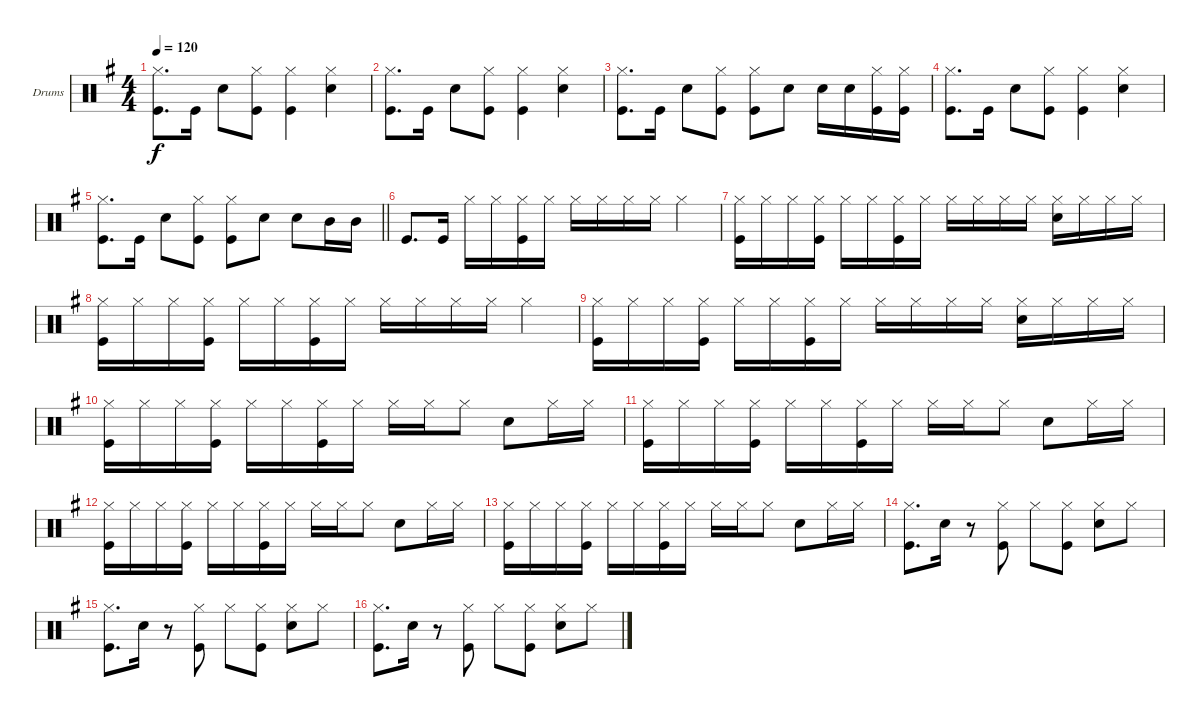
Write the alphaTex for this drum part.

\bracketExtendMode groupsimilarinstruments
\firstSystemTrackNameOrientation horizontal
\otherSystemsTrackNameOrientation horizontal
\track ("Drumkit" "Drums") {instrument percussion}
\staff {score}
\articulation defaults
\ts (4 4)
\tempo 120
\clef neutral
\ks eminor
("Hi-Hat (closed)" "Kick (hit)").8{d dy f} "Kick (hit)".16 "Snare (hit) 2".8 ("Hi-Hat (closed)" "Kick (hit)").8 ("Hi-Hat (closed)" "Kick (hit)").4 ("Hi-Hat (closed)" "Snare (hit) 2").4 |
("Hi-Hat (closed)" "Kick (hit)").8{d} "Kick (hit)".16 "Snare (hit) 2".8 ("Hi-Hat (closed)" "Kick (hit)").8 ("Hi-Hat (closed)" "Kick (hit)").4 ("Hi-Hat (closed)" "Snare (hit) 2").4 |
("Hi-Hat (closed)" "Kick (hit)").8{d} "Kick (hit)".16 "Snare (hit) 2".8 ("Hi-Hat (closed)" "Kick (hit)").8 ("Hi-Hat (closed)" "Kick (hit)").8 "Snare (hit) 2".8 "Snare (hit) 2".16 "Snare (hit) 2".16 ("Hi-Hat (closed)" "Kick (hit)").16 ("Hi-Hat (closed)" "Kick (hit)").16 |
("Hi-Hat (closed)" "Kick (hit)").8{d} "Kick (hit)".16 "Snare (hit) 2".8 ("Hi-Hat (closed)" "Kick (hit)").8 ("Hi-Hat (closed)" "Kick (hit)").4 ("Hi-Hat (closed)" "Snare (hit) 2").4 |
\barLineRight lightlight
("Hi-Hat (closed)" "Kick (hit)").8{d} "Kick (hit)".16 "Snare (hit) 2".8 ("Hi-Hat (closed)" "Kick (hit)").8 ("Hi-Hat (closed)" "Kick (hit)").8 "Snare (hit) 2".8 "Snare (hit) 2".8 "Mid Tom (hit)".16 "Mid Tom (hit)".16 |
"Kick (hit)".8{d} "Kick (hit)".16 "Hi-Hat (closed)".16 "Hi-Hat (closed)".16 ("Hi-Hat (closed)" "Kick (hit)").16 "Hi-Hat (closed)".16 "Hi-Hat (closed)".16 "Hi-Hat (closed)".16 "Hi-Hat (closed)".16 "Hi-Hat (closed)".16 "Hi-Hat (closed)".4 |
("Hi-Hat (closed)" "Kick (hit)").16 "Hi-Hat (closed)".16 "Hi-Hat (closed)".16 ("Hi-Hat (closed)" "Kick (hit)").16 "Hi-Hat (closed)".16 "Hi-Hat (closed)".16 ("Hi-Hat (closed)" "Kick (hit)").16 "Hi-Hat (closed)".16 "Hi-Hat (closed)".16 "Hi-Hat (closed)".16 "Hi-Hat (closed)".16 "Hi-Hat (closed)".16 ("Hi-Hat (closed)" "Snare (hit) 2").16 "Hi-Hat (closed)".16 "Hi-Hat (closed)".16 "Hi-Hat (closed)".16 |
("Hi-Hat (closed)" "Kick (hit)").16 "Hi-Hat (closed)".16 "Hi-Hat (closed)".16 ("Hi-Hat (closed)" "Kick (hit)").16 "Hi-Hat (closed)".16 "Hi-Hat (closed)".16 ("Hi-Hat (closed)" "Kick (hit)").16 "Hi-Hat (closed)".16 "Hi-Hat (closed)".16 "Hi-Hat (closed)".16 "Hi-Hat (closed)".16 "Hi-Hat (closed)".16 "Hi-Hat (closed)".4 |
("Hi-Hat (closed)" "Kick (hit)").16 "Hi-Hat (closed)".16 "Hi-Hat (closed)".16 ("Hi-Hat (closed)" "Kick (hit)").16 "Hi-Hat (closed)".16 "Hi-Hat (closed)".16 ("Hi-Hat (closed)" "Kick (hit)").16 "Hi-Hat (closed)".16 "Hi-Hat (closed)".16 "Hi-Hat (closed)".16 "Hi-Hat (closed)".16 "Hi-Hat (closed)".16 ("Hi-Hat (closed)" "Snare (hit) 2").16 "Hi-Hat (closed)".16 "Hi-Hat (closed)".16 "Hi-Hat (closed)".16 |
("Hi-Hat (closed)" "Kick (hit)").16 "Hi-Hat (closed)".16 "Hi-Hat (closed)".16 ("Hi-Hat (closed)" "Kick (hit)").16 "Hi-Hat (closed)".16 "Hi-Hat (closed)".16 ("Hi-Hat (closed)" "Kick (hit)").16 "Hi-Hat (closed)".16 "Hi-Hat (closed)".16 "Hi-Hat (closed)".16 "Hi-Hat (closed)".8 "Snare (hit) 2".8 "Hi-Hat (closed)".16 "Hi-Hat (closed)".16 |
("Hi-Hat (closed)" "Kick (hit)").16 "Hi-Hat (closed)".16 "Hi-Hat (closed)".16 ("Hi-Hat (closed)" "Kick (hit)").16 "Hi-Hat (closed)".16 "Hi-Hat (closed)".16 ("Hi-Hat (closed)" "Kick (hit)").16 "Hi-Hat (closed)".16 "Hi-Hat (closed)".16 "Hi-Hat (closed)".16 "Hi-Hat (closed)".8 "Snare (hit) 2".8 "Hi-Hat (closed)".16 "Hi-Hat (closed)".16 |
("Hi-Hat (closed)" "Kick (hit)").16 "Hi-Hat (closed)".16 "Hi-Hat (closed)".16 ("Hi-Hat (closed)" "Kick (hit)").16 "Hi-Hat (closed)".16 "Hi-Hat (closed)".16 ("Hi-Hat (closed)" "Kick (hit)").16 "Hi-Hat (closed)".16 "Hi-Hat (closed)".16 "Hi-Hat (closed)".16 "Hi-Hat (closed)".8 "Snare (hit) 2".8 "Hi-Hat (closed)".16 "Hi-Hat (closed)".16 |
("Hi-Hat (closed)" "Kick (hit)").16 "Hi-Hat (closed)".16 "Hi-Hat (closed)".16 ("Hi-Hat (closed)" "Kick (hit)").16 "Hi-Hat (closed)".16 "Hi-Hat (closed)".16 ("Hi-Hat (closed)" "Kick (hit)").16 "Hi-Hat (closed)".16 "Hi-Hat (closed)".16 "Hi-Hat (closed)".16 "Hi-Hat (closed)".8 "Snare (hit) 2".8 "Hi-Hat (closed)".16 "Hi-Hat (closed)".16 |
("Hi-Hat (closed)" "Kick (hit)").8{d} "Snare (hit) 2".16 r.8 ("Hi-Hat (closed)" "Kick (hit)").8 "Hi-Hat (closed)".8 ("Hi-Hat (closed)" "Kick (hit)").8 ("Hi-Hat (closed)" "Snare (hit) 2").8 "Hi-Hat (closed)".8 |
("Hi-Hat (closed)" "Kick (hit)").8{d} "Snare (hit) 2".16 r.8 ("Hi-Hat (closed)" "Kick (hit)").8 "Hi-Hat (closed)".8 ("Hi-Hat (closed)" "Kick (hit)").8 ("Hi-Hat (closed)" "Snare (hit) 2").8 "Hi-Hat (closed)".8 |
("Hi-Hat (closed)" "Kick (hit)").8{d} "Snare (hit) 2".16 r.8 ("Hi-Hat (closed)" "Kick (hit)").8 "Hi-Hat (closed)".8 ("Hi-Hat (closed)" "Kick (hit)").8 ("Hi-Hat (closed)" "Snare (hit) 2").8 "Hi-Hat (closed)".8
